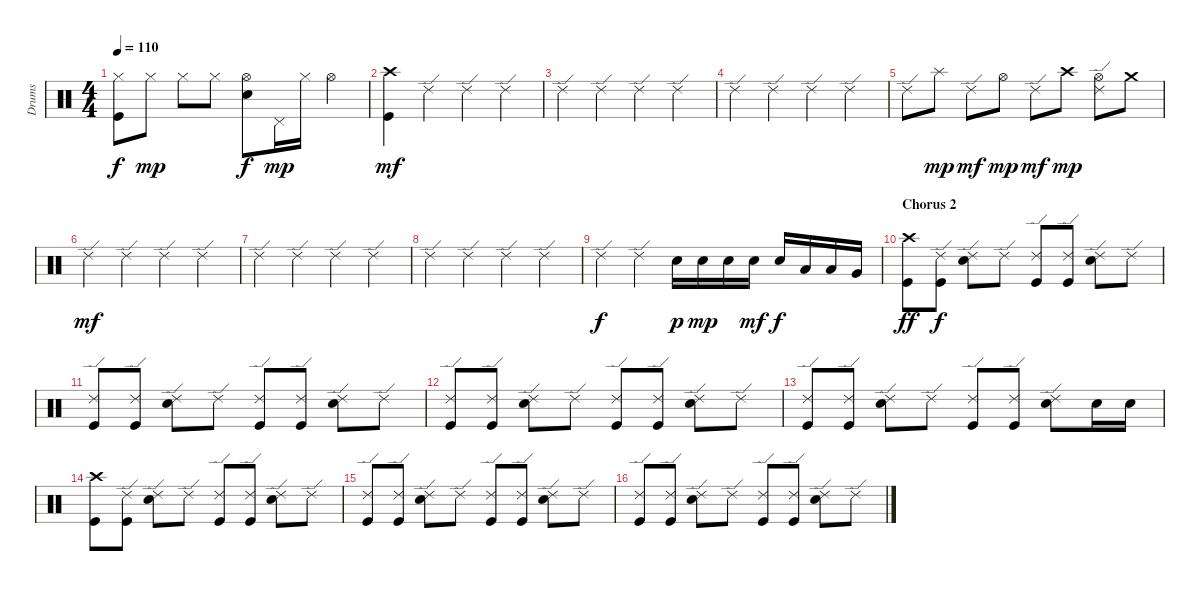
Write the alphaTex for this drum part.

\track ("Drums" "Drums") {instrument percussion}
\staff {score}
\articulation defaults
\ts (4 4)
\tempo 110
\clef neutral
\ks c
("Hi-Hat (closed)" "Kick (hit)").8{dy f} "Hi-Hat (closed)".8{dy mp} "Hi-Hat (closed)".8 "Hi-Hat (closed)".8 ("Hi-Hat (open)" "Electric Snare (hit)").8{dy f} "Pedal Hi-Hat (hit)".16{dy mp} "Hi-Hat (closed)".16 "Hi-Hat (open)".4 |
\section ("" "")
("Crash high (hit)" "Kick (hit)").4{dy mf} "Ride (edge) 2".4 "Ride (edge) 2".4 "Ride (edge) 2".4 |
"Ride (edge) 2".4 "Ride (edge) 2".4 "Ride (edge) 2".4 "Ride (edge) 2".4 |
"Ride (edge) 2".4 "Ride (edge) 2".4 "Ride (edge) 2".4 "Ride (edge) 2".4 |
"Ride (edge) 2".8 "Splash (hit)".8{dy mp} "Ride (edge) 2".8{dy mf} "Hi-Hat (open)".8{dy mp} "Ride (edge) 2".8{dy mf} "Crash high (hit)".8{dy mp} ("Ride (edge) 2" "Hi-Hat (open)").8 "Crash medium (hit)".8 |
"Ride (edge) 2".4{dy mf} "Ride (edge) 2".4 "Ride (edge) 2".4 "Ride (edge) 2".4 |
"Ride (edge) 2".4 "Ride (edge) 2".4 "Ride (edge) 2".4 "Ride (edge) 2".4 |
"Ride (edge) 2".4 "Ride (edge) 2".4 "Ride (edge) 2".4 "Ride (edge) 2".4 |
"Ride (edge) 2".4{dy f} "Ride (edge) 2".4 "Electric Snare (hit)".16{dy p} "Electric Snare (hit)".16{dy mp} "Electric Snare (hit)".16 "Electric Snare (hit)".16{dy mf} "Electric Snare (hit)".16{dy f} "Low Tom (hit)".16 "Low Tom (hit)".16 "Very Low Tom (hit)".16 |
\section ("" "Chorus 2")
("Crash high (hit)" "Kick (hit)").8{dy ff} ("Ride (edge) 2" "Kick (hit)").8{dy f} ("Ride (edge) 2" "Electric Snare (hit)").8 "Ride (edge) 2".8 ("Ride (edge) 2" "Kick (hit)").8 ("Ride (edge) 2" "Kick (hit)").8 ("Ride (edge) 2" "Electric Snare (hit)").8 "Ride (edge) 2".8 |
("Ride (edge) 2" "Kick (hit)").8 ("Ride (edge) 2" "Kick (hit)").8 ("Ride (edge) 2" "Electric Snare (hit)").8 "Ride (edge) 2".8 ("Ride (edge) 2" "Kick (hit)").8 ("Ride (edge) 2" "Kick (hit)").8 ("Ride (edge) 2" "Electric Snare (hit)").8 "Ride (edge) 2".8 |
("Ride (edge) 2" "Kick (hit)").8 ("Ride (edge) 2" "Kick (hit)").8 ("Ride (edge) 2" "Electric Snare (hit)").8 "Ride (edge) 2".8 ("Ride (edge) 2" "Kick (hit)").8 ("Ride (edge) 2" "Kick (hit)").8 ("Ride (edge) 2" "Electric Snare (hit)").8 "Ride (edge) 2".8 |
("Ride (edge) 2" "Kick (hit)").8 ("Ride (edge) 2" "Kick (hit)").8 ("Ride (edge) 2" "Electric Snare (hit)").8 "Ride (edge) 2".8 ("Ride (edge) 2" "Kick (hit)").8 ("Ride (edge) 2" "Kick (hit)").8 ("Ride (edge) 2" "Electric Snare (hit)").8 "Electric Snare (hit)".16 "Electric Snare (hit)".16 |
("Crash high (hit)" "Kick (hit)").8 ("Ride (edge) 2" "Kick (hit)").8 ("Ride (edge) 2" "Electric Snare (hit)").8 "Ride (edge) 2".8 ("Ride (edge) 2" "Kick (hit)").8 ("Ride (edge) 2" "Kick (hit)").8 ("Ride (edge) 2" "Electric Snare (hit)").8 "Ride (edge) 2".8 |
("Ride (edge) 2" "Kick (hit)").8 ("Ride (edge) 2" "Kick (hit)").8 ("Ride (edge) 2" "Electric Snare (hit)").8 "Ride (edge) 2".8 ("Ride (edge) 2" "Kick (hit)").8 ("Ride (edge) 2" "Kick (hit)").8 ("Ride (edge) 2" "Electric Snare (hit)").8 "Ride (edge) 2".8 |
("Ride (edge) 2" "Kick (hit)").8 ("Ride (edge) 2" "Kick (hit)").8 ("Ride (edge) 2" "Electric Snare (hit)").8 "Ride (edge) 2".8 ("Ride (edge) 2" "Kick (hit)").8 ("Ride (edge) 2" "Kick (hit)").8 ("Ride (edge) 2" "Electric Snare (hit)").8 "Ride (edge) 2".8
